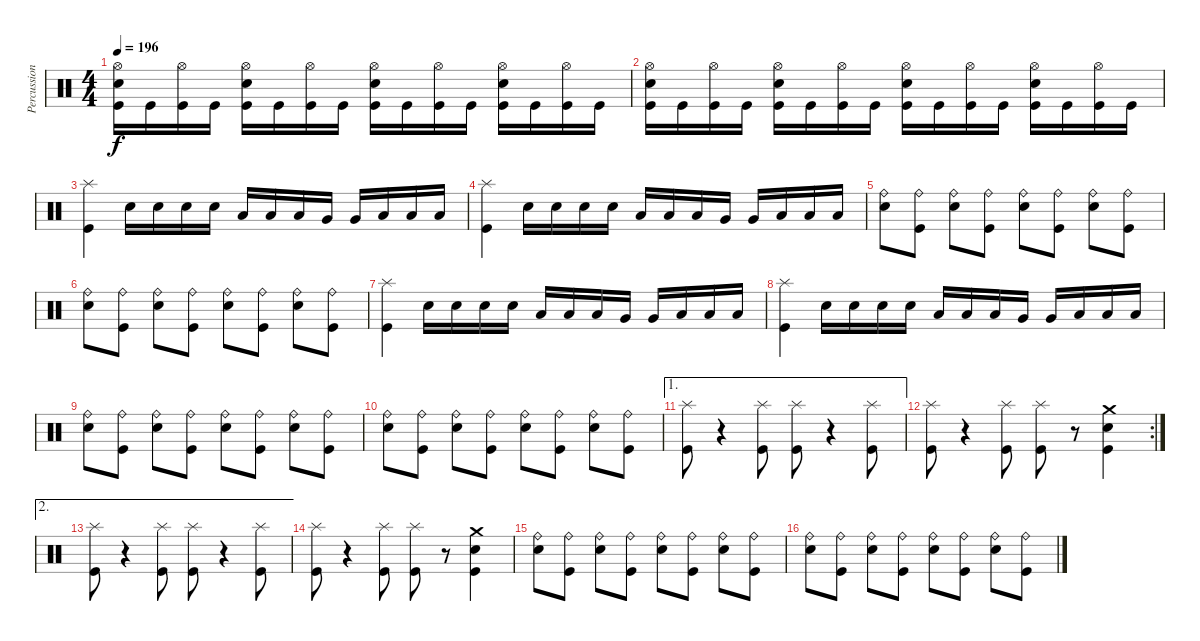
\track ("Percussions" "Percussion") {instrument percussion}
\staff {score}
\articulation defaults
\ts (4 4)
\tempo 196
\clef neutral
\ks c
("Kick (hit)" "Electric Snare (hit)" "Hi-Hat (open)").16{dy f} "Kick (hit)".16 ("Kick (hit)" "Hi-Hat (open)").16 "Kick (hit)".16 ("Kick (hit)" "Electric Snare (hit)" "Hi-Hat (open)").16 "Kick (hit)".16 ("Kick (hit)" "Hi-Hat (open)").16 "Kick (hit)".16 ("Kick (hit)" "Electric Snare (hit)" "Hi-Hat (open)").16 "Kick (hit)".16 ("Kick (hit)" "Hi-Hat (open)").16 "Kick (hit)".16 ("Kick (hit)" "Electric Snare (hit)" "Hi-Hat (open)").16 "Kick (hit)".16 ("Kick (hit)" "Hi-Hat (open)").16 "Kick (hit)".16 |
("Kick (hit)" "Electric Snare (hit)" "Hi-Hat (open)").16 "Kick (hit)".16 ("Kick (hit)" "Hi-Hat (open)").16 "Kick (hit)".16 ("Kick (hit)" "Electric Snare (hit)" "Hi-Hat (open)").16 "Kick (hit)".16 ("Kick (hit)" "Hi-Hat (open)").16 "Kick (hit)".16 ("Kick (hit)" "Electric Snare (hit)" "Hi-Hat (open)").16 "Kick (hit)".16 ("Kick (hit)" "Hi-Hat (open)").16 "Kick (hit)".16 ("Kick (hit)" "Electric Snare (hit)" "Hi-Hat (open)").16 "Kick (hit)".16 ("Kick (hit)" "Hi-Hat (open)").16 "Kick (hit)".16 |
("Kick (hit)" "Splash (hit)").4 "Electric Snare (hit)".16 "Electric Snare (hit)".16 "Electric Snare (hit)".16 "Electric Snare (hit)".16 "Low Tom (hit)".16 "Low Tom (hit)".16 "Low Tom (hit)".16 "Very Low Tom (hit)".16 "Very Low Tom (hit)".16 "Low Floor Tom (hit)".16 "Low Floor Tom (hit)".16 "Low Floor Tom (hit)".16 |
("Kick (hit)" "Splash (hit)").4 "Electric Snare (hit)".16 "Electric Snare (hit)".16 "Electric Snare (hit)".16 "Electric Snare (hit)".16 "Low Tom (hit)".16 "Low Tom (hit)".16 "Low Tom (hit)".16 "Very Low Tom (hit)".16 "Very Low Tom (hit)".16 "Low Floor Tom (hit)".16 "Low Floor Tom (hit)".16 "Low Floor Tom (hit)".16 |
("Electric Snare (hit)" "Ride (bell)").8 ("Kick (hit)" "Ride (bell)").8 ("Electric Snare (hit)" "Ride (bell)").8 ("Kick (hit)" "Ride (bell)").8 ("Electric Snare (hit)" "Ride (bell)").8 ("Kick (hit)" "Ride (bell)").8 ("Electric Snare (hit)" "Ride (bell)").8 ("Kick (hit)" "Ride (bell)").8 |
("Electric Snare (hit)" "Ride (bell)").8 ("Kick (hit)" "Ride (bell)").8 ("Electric Snare (hit)" "Ride (bell)").8 ("Kick (hit)" "Ride (bell)").8 ("Electric Snare (hit)" "Ride (bell)").8 ("Kick (hit)" "Ride (bell)").8 ("Electric Snare (hit)" "Ride (bell)").8 ("Kick (hit)" "Ride (bell)").8 |
("Kick (hit)" "Splash (hit)").4 "Electric Snare (hit)".16 "Electric Snare (hit)".16 "Electric Snare (hit)".16 "Electric Snare (hit)".16 "Low Tom (hit)".16 "Low Tom (hit)".16 "Low Tom (hit)".16 "Very Low Tom (hit)".16 "Very Low Tom (hit)".16 "Low Floor Tom (hit)".16 "Low Floor Tom (hit)".16 "Low Floor Tom (hit)".16 |
("Kick (hit)" "Splash (hit)").4 "Electric Snare (hit)".16 "Electric Snare (hit)".16 "Electric Snare (hit)".16 "Electric Snare (hit)".16 "Low Tom (hit)".16 "Low Tom (hit)".16 "Low Tom (hit)".16 "Very Low Tom (hit)".16 "Very Low Tom (hit)".16 "Low Floor Tom (hit)".16 "Low Floor Tom (hit)".16 "Low Floor Tom (hit)".16 |
("Electric Snare (hit)" "Ride (bell)").8 ("Kick (hit)" "Ride (bell)").8 ("Electric Snare (hit)" "Ride (bell)").8 ("Kick (hit)" "Ride (bell)").8 ("Electric Snare (hit)" "Ride (bell)").8 ("Kick (hit)" "Ride (bell)").8 ("Electric Snare (hit)" "Ride (bell)").8 ("Kick (hit)" "Ride (bell)").8 |
("Electric Snare (hit)" "Ride (bell)").8 ("Kick (hit)" "Ride (bell)").8 ("Electric Snare (hit)" "Ride (bell)").8 ("Kick (hit)" "Ride (bell)").8 ("Electric Snare (hit)" "Ride (bell)").8 ("Kick (hit)" "Ride (bell)").8 ("Electric Snare (hit)" "Ride (bell)").8 ("Kick (hit)" "Ride (bell)").8 |
\ae 1
("Kick (hit)" "Splash (hit)").8 r.4 ("Kick (hit)" "Splash (hit)").8 ("Kick (hit)" "Splash (hit)").8 r.4 ("Kick (hit)" "Splash (hit)").8 |
\rc 2
("Kick (hit)" "Splash (hit)").8 r.4 ("Kick (hit)" "Splash (hit)").8 ("Kick (hit)" "Splash (hit)").8 r.8 ("Kick (hit)" "Electric Snare (hit)" "Crash medium (hit)").4 |
\ae 2
("Kick (hit)" "Splash (hit)").8 r.4 ("Kick (hit)" "Splash (hit)").8 ("Kick (hit)" "Splash (hit)").8 r.4 ("Kick (hit)" "Splash (hit)").8 |
("Kick (hit)" "Splash (hit)").8 r.4 ("Kick (hit)" "Splash (hit)").8 ("Kick (hit)" "Splash (hit)").8 r.8 ("Kick (hit)" "Electric Snare (hit)" "Crash medium (hit)").4 |
("Electric Snare (hit)" "Ride (bell)").8 ("Kick (hit)" "Ride (bell)").8 ("Electric Snare (hit)" "Ride (bell)").8 ("Kick (hit)" "Ride (bell)").8 ("Electric Snare (hit)" "Ride (bell)").8 ("Kick (hit)" "Ride (bell)").8 ("Electric Snare (hit)" "Ride (bell)").8 ("Kick (hit)" "Ride (bell)").8 |
("Electric Snare (hit)" "Ride (bell)").8 ("Kick (hit)" "Ride (bell)").8 ("Electric Snare (hit)" "Ride (bell)").8 ("Kick (hit)" "Ride (bell)").8 ("Electric Snare (hit)" "Ride (bell)").8 ("Kick (hit)" "Ride (bell)").8 ("Electric Snare (hit)" "Ride (bell)").8 ("Kick (hit)" "Ride (bell)").8
